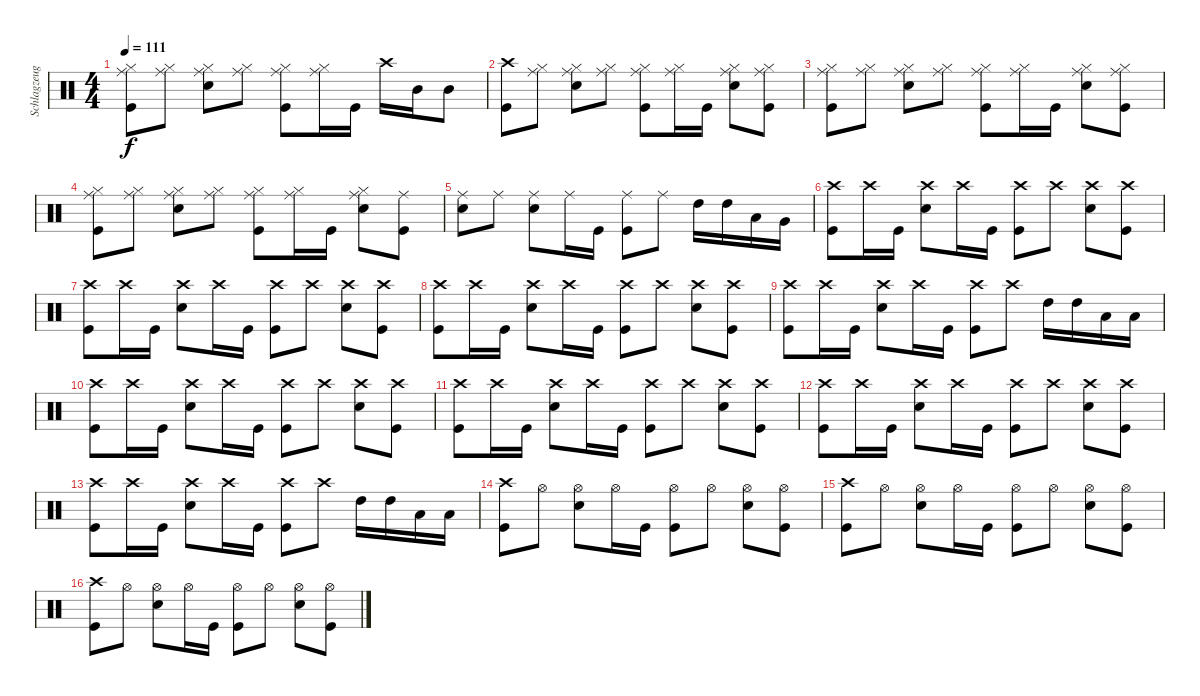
\track ("Schlagzeug" "Schlagzeug") {solo instrument percussion}
\staff {score}
\articulation defaults
\ts (4 4)
\tempo 111
\clef neutral
\ks c
("Kick (hit)" "Hi-Hat (closed)" "Ride (middle)").8{dy f} ("Ride (middle)" "Hi-Hat (closed)").8 ("Ride (middle)" "Hi-Hat (closed)" "Snare (hit) 2").8 ("Ride (middle)" "Hi-Hat (closed)").8 ("Ride (middle)" "Hi-Hat (closed)" "Kick (hit)").8 ("Ride (middle)" "Hi-Hat (closed)").16 "Kick (hit)".16 "Crash high (hit)".16 "Mid Tom (hit)".16 "Mid Tom (hit)".8 |
("Crash high (hit)" "Kick (hit)").8 ("Ride (middle)" "Hi-Hat (closed)").8 ("Ride (middle)" "Hi-Hat (closed)" "Snare (hit) 2").8 ("Ride (middle)" "Hi-Hat (closed)").8 ("Ride (middle)" "Hi-Hat (closed)" "Kick (hit)").8 ("Ride (middle)" "Hi-Hat (closed)").16 "Kick (hit)".16 ("Ride (middle)" "Hi-Hat (closed)" "Snare (hit) 2").8 ("Hi-Hat (closed)" "Kick (hit)" "Ride (middle)").8 |
("Kick (hit)" "Hi-Hat (closed)" "Ride (middle)").8 ("Ride (middle)" "Hi-Hat (closed)").8 ("Ride (middle)" "Hi-Hat (closed)" "Snare (hit) 2").8 ("Ride (middle)" "Hi-Hat (closed)").8 ("Ride (middle)" "Hi-Hat (closed)" "Kick (hit)").8 ("Ride (middle)" "Hi-Hat (closed)").16 "Kick (hit)".16 ("Ride (middle)" "Hi-Hat (closed)" "Snare (hit) 2").8 ("Hi-Hat (closed)" "Kick (hit)" "Ride (middle)").8 |
("Kick (hit)" "Hi-Hat (closed)" "Ride (middle)").8 ("Ride (middle)" "Hi-Hat (closed)").8 ("Ride (middle)" "Hi-Hat (closed)" "Snare (hit) 2").8 ("Ride (middle)" "Hi-Hat (closed)").8 ("Ride (middle)" "Hi-Hat (closed)" "Kick (hit)").8 ("Ride (middle)" "Hi-Hat (closed)").16 "Kick (hit)".16 ("Ride (middle)" "Hi-Hat (closed)" "Snare (hit) 2").8 ("Ride (middle)" "Kick (hit)").8 |
("Snare (hit) 2" "Ride (middle)").8 "Ride (middle)".8 ("Ride (middle)" "Snare (hit) 2").8 "Ride (middle)".16 "Kick (hit)".16 ("Ride (middle)" "Kick (hit)").8 "Ride (middle)".8 "High Tom (hit)".16 "High Tom (hit)".16 "Low Tom (hit)".16 "Very Low Tom (hit)".16 |
("Crash high (hit)" "Kick (hit)").8 "Crash high (hit)".16 "Kick (hit)".16 ("Crash high (hit)" "Snare (hit) 2").8 "Crash high (hit)".16 "Kick (hit)".16 ("Crash high (hit)" "Kick (hit)").8 "Crash high (hit)".8 ("Snare (hit) 2" "Crash high (hit)").8 ("Crash high (hit)" "Kick (hit)").8 |
("Crash high (hit)" "Kick (hit)").8 "Crash high (hit)".16 "Kick (hit)".16 ("Crash high (hit)" "Snare (hit) 2").8 "Crash high (hit)".16 "Kick (hit)".16 ("Crash high (hit)" "Kick (hit)").8 "Crash high (hit)".8 ("Snare (hit) 2" "Crash high (hit)").8 ("Crash high (hit)" "Kick (hit)").8 |
("Crash high (hit)" "Kick (hit)").8 "Crash high (hit)".16 "Kick (hit)".16 ("Crash high (hit)" "Snare (hit) 2").8 "Crash high (hit)".16 "Kick (hit)".16 ("Crash high (hit)" "Kick (hit)").8 "Crash high (hit)".8 ("Snare (hit) 2" "Crash high (hit)").8 ("Crash high (hit)" "Kick (hit)").8 |
("Crash high (hit)" "Kick (hit)").8 "Crash high (hit)".16 "Kick (hit)".16 ("Crash high (hit)" "Snare (hit) 2").8 "Crash high (hit)".16 "Kick (hit)".16 ("Crash high (hit)" "Kick (hit)").8 "Crash high (hit)".8 "High Tom (hit)".16 "High Tom (hit)".16 "Low Tom (hit)".16 "Low Tom (hit)".16 |
("Crash high (hit)" "Kick (hit)").8 "Crash high (hit)".16 "Kick (hit)".16 ("Crash high (hit)" "Snare (hit) 2").8 "Crash high (hit)".16 "Kick (hit)".16 ("Crash high (hit)" "Kick (hit)").8 "Crash high (hit)".8 ("Snare (hit) 2" "Crash high (hit)").8 ("Crash high (hit)" "Kick (hit)").8 |
("Crash high (hit)" "Kick (hit)").8 "Crash high (hit)".16 "Kick (hit)".16 ("Crash high (hit)" "Snare (hit) 2").8 "Crash high (hit)".16 "Kick (hit)".16 ("Crash high (hit)" "Kick (hit)").8 "Crash high (hit)".8 ("Snare (hit) 2" "Crash high (hit)").8 ("Crash high (hit)" "Kick (hit)").8 |
("Crash high (hit)" "Kick (hit)").8 "Crash high (hit)".16 "Kick (hit)".16 ("Crash high (hit)" "Snare (hit) 2").8 "Crash high (hit)".16 "Kick (hit)".16 ("Crash high (hit)" "Kick (hit)").8 "Crash high (hit)".8 ("Snare (hit) 2" "Crash high (hit)").8 ("Crash high (hit)" "Kick (hit)").8 |
("Crash high (hit)" "Kick (hit)").8 "Crash high (hit)".16 "Kick (hit)".16 ("Crash high (hit)" "Snare (hit) 2").8 "Crash high (hit)".16 "Kick (hit)".16 ("Crash high (hit)" "Kick (hit)").8 "Crash high (hit)".8 "High Tom (hit)".16 "High Tom (hit)".16 "Low Tom (hit)".16 "Low Tom (hit)".16 |
("Crash high (hit)" "Kick (hit)").8 "Hi-Hat (open)".8 ("Hi-Hat (open)" "Snare (hit) 2").8 "Hi-Hat (open)".16 "Kick (hit)".16 ("Kick (hit)" "Hi-Hat (open)").8 "Hi-Hat (open)".8 ("Hi-Hat (open)" "Snare (hit) 2").8 ("Kick (hit)" "Hi-Hat (open)").8 |
("Crash high (hit)" "Kick (hit)").8 "Hi-Hat (open)".8 ("Hi-Hat (open)" "Snare (hit) 2").8 "Hi-Hat (open)".16 "Kick (hit)".16 ("Kick (hit)" "Hi-Hat (open)").8 "Hi-Hat (open)".8 ("Hi-Hat (open)" "Snare (hit) 2").8 ("Kick (hit)" "Hi-Hat (open)").8 |
("Crash high (hit)" "Kick (hit)").8 "Hi-Hat (open)".8 ("Hi-Hat (open)" "Snare (hit) 2").8 "Hi-Hat (open)".16 "Kick (hit)".16 ("Kick (hit)" "Hi-Hat (open)").8 "Hi-Hat (open)".8 ("Hi-Hat (open)" "Snare (hit) 2").8 ("Kick (hit)" "Hi-Hat (open)").8
